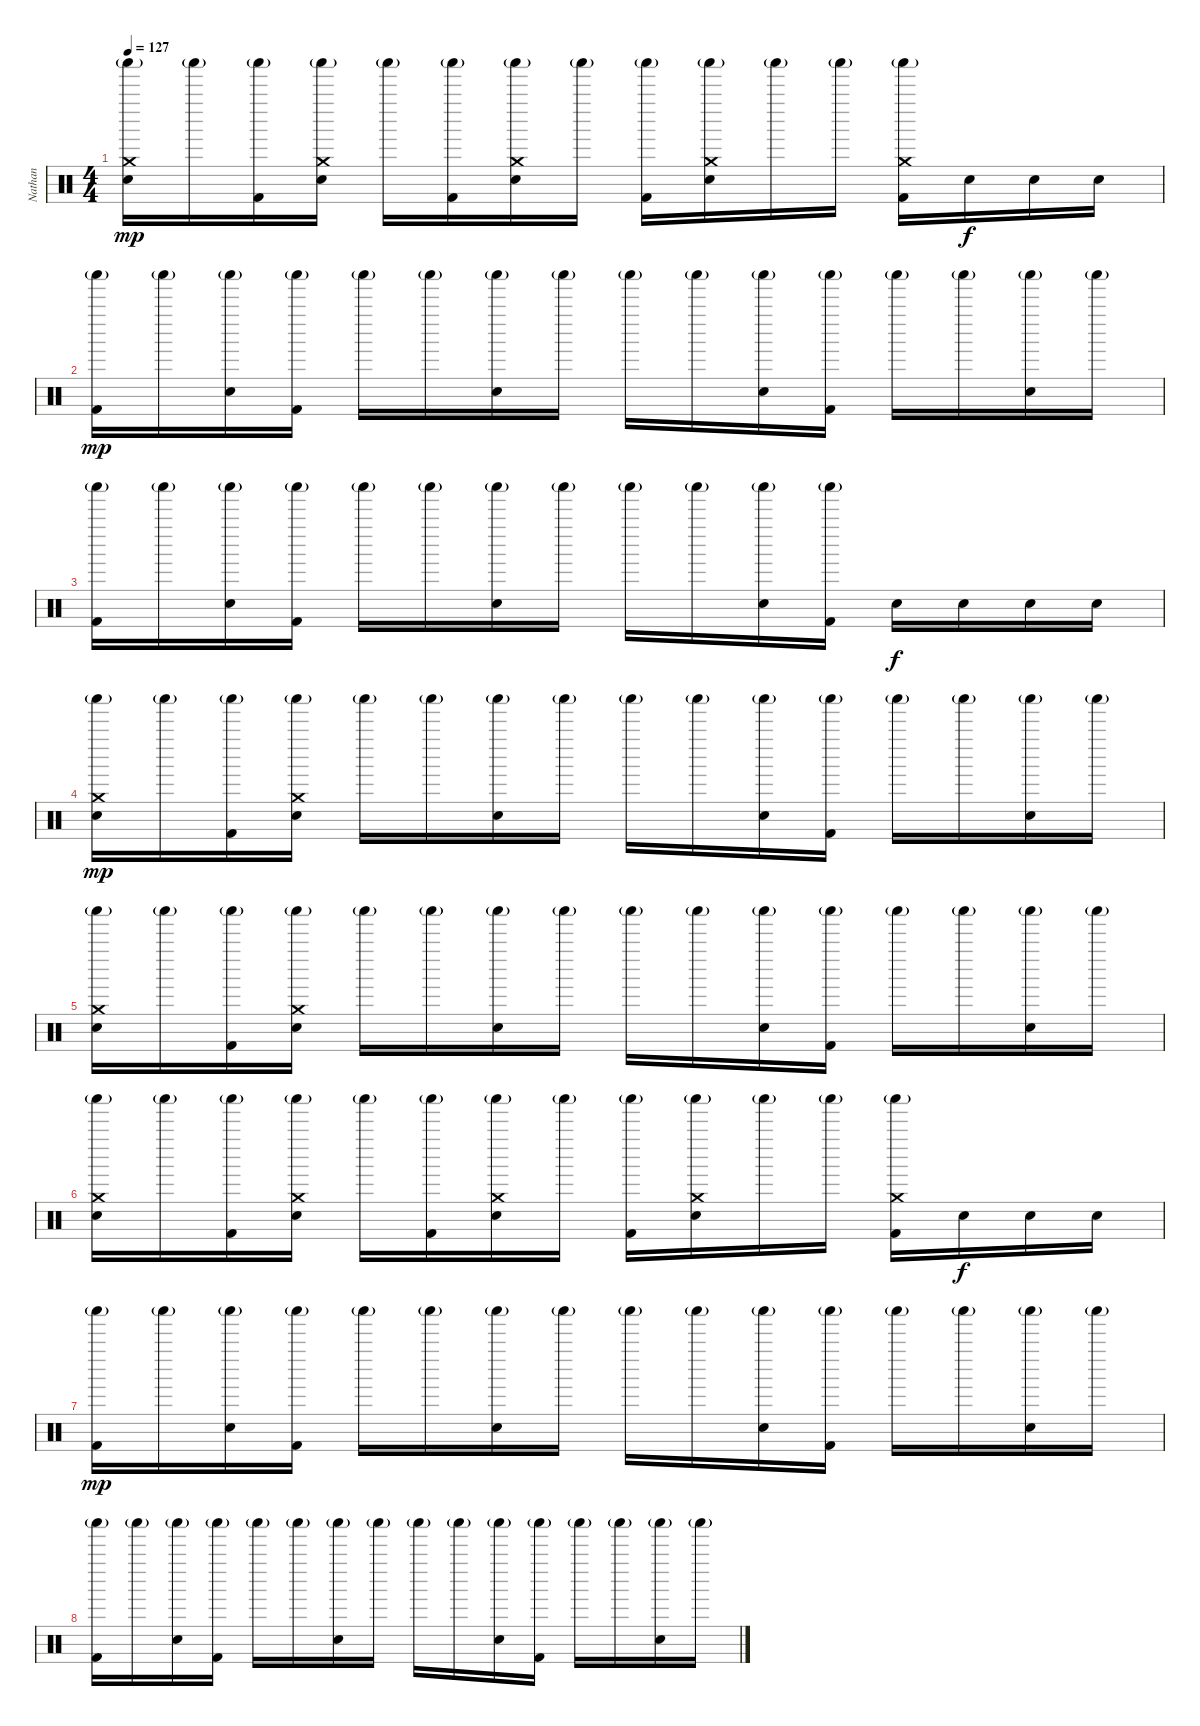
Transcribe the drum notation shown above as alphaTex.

\track ("Nathan" "Nathan") {instrument percussion}
\staff {score}
\articulation defaults
\ts (4 4)
\tempo 127
\clef neutral
\ks c
("Crash medium (hit)" "Shaker (hit)"{g} "Electric Snare (hit)").16{dy mp} "Shaker (hit)"{g}.16 ("Shaker (hit)"{g} "Kick (hit) 2").16 ("Crash medium (hit)" "Shaker (hit)"{g} "Electric Snare (hit)").16 "Shaker (hit)"{g}.16 ("Shaker (hit)"{g} "Kick (hit) 2").16 ("Crash medium (hit)" "Shaker (hit)"{g} "Electric Snare (hit)").16 "Shaker (hit)"{g}.16 ("Shaker (hit)"{g} "Kick (hit) 2").16 ("Crash medium (hit)" "Shaker (hit)"{g} "Electric Snare (hit)").16 "Shaker (hit)"{g}.16 "Shaker (hit)"{g}.16 ("Crash medium (hit)" "Shaker (hit)"{g} "Kick (hit) 2").16 "Electric Snare (hit)".16{dy f} "Electric Snare (hit)".16 "Electric Snare (hit)".16 |
("Shaker (hit)"{g} "Kick (hit) 2").16{dy mp} "Shaker (hit)"{g}.16 ("Shaker (hit)"{g} "Electric Snare (hit)").16 ("Shaker (hit)"{g} "Kick (hit) 2").16 "Shaker (hit)"{g}.16 "Shaker (hit)"{g}.16 ("Shaker (hit)"{g} "Electric Snare (hit)").16 "Shaker (hit)"{g}.16 "Shaker (hit)"{g}.16 "Shaker (hit)"{g}.16 ("Shaker (hit)"{g} "Electric Snare (hit)").16 ("Shaker (hit)"{g} "Kick (hit) 2").16 "Shaker (hit)"{g}.16 "Shaker (hit)"{g}.16 ("Shaker (hit)"{g} "Electric Snare (hit)").16 "Shaker (hit)"{g}.16 |
("Shaker (hit)"{g} "Kick (hit) 2").16 "Shaker (hit)"{g}.16 ("Shaker (hit)"{g} "Electric Snare (hit)").16 ("Shaker (hit)"{g} "Kick (hit) 2").16 "Shaker (hit)"{g}.16 "Shaker (hit)"{g}.16 ("Shaker (hit)"{g} "Electric Snare (hit)").16 "Shaker (hit)"{g}.16 "Shaker (hit)"{g}.16 "Shaker (hit)"{g}.16 ("Shaker (hit)"{g} "Electric Snare (hit)").16 ("Shaker (hit)"{g} "Kick (hit) 2").16 "Electric Snare (hit)".16{dy f} "Electric Snare (hit)".16 "Electric Snare (hit)".16 "Electric Snare (hit)".16 |
("Crash medium (hit)" "Shaker (hit)"{g} "Electric Snare (hit)").16{dy mp} "Shaker (hit)"{g}.16 ("Shaker (hit)"{g} "Kick (hit) 2").16 ("Crash medium (hit)" "Shaker (hit)"{g} "Electric Snare (hit)").16 "Shaker (hit)"{g}.16 "Shaker (hit)"{g}.16 ("Shaker (hit)"{g} "Electric Snare (hit)").16 "Shaker (hit)"{g}.16 "Shaker (hit)"{g}.16 "Shaker (hit)"{g}.16 ("Shaker (hit)"{g} "Electric Snare (hit)").16 ("Shaker (hit)"{g} "Kick (hit) 2").16 "Shaker (hit)"{g}.16 "Shaker (hit)"{g}.16 ("Shaker (hit)"{g} "Electric Snare (hit)").16 "Shaker (hit)"{g}.16 |
("Crash medium (hit)" "Shaker (hit)"{g} "Electric Snare (hit)").16 "Shaker (hit)"{g}.16 ("Shaker (hit)"{g} "Kick (hit) 2").16 ("Crash medium (hit)" "Shaker (hit)"{g} "Electric Snare (hit)").16 "Shaker (hit)"{g}.16 "Shaker (hit)"{g}.16 ("Shaker (hit)"{g} "Electric Snare (hit)").16 "Shaker (hit)"{g}.16 "Shaker (hit)"{g}.16 "Shaker (hit)"{g}.16 ("Shaker (hit)"{g} "Electric Snare (hit)").16 ("Shaker (hit)"{g} "Kick (hit) 2").16 "Shaker (hit)"{g}.16 "Shaker (hit)"{g}.16 ("Shaker (hit)"{g} "Electric Snare (hit)").16 "Shaker (hit)"{g}.16 |
("Crash medium (hit)" "Shaker (hit)"{g} "Electric Snare (hit)").16 "Shaker (hit)"{g}.16 ("Shaker (hit)"{g} "Kick (hit) 2").16 ("Crash medium (hit)" "Shaker (hit)"{g} "Electric Snare (hit)").16 "Shaker (hit)"{g}.16 ("Shaker (hit)"{g} "Kick (hit) 2").16 ("Crash medium (hit)" "Shaker (hit)"{g} "Electric Snare (hit)").16 "Shaker (hit)"{g}.16 ("Shaker (hit)"{g} "Kick (hit) 2").16 ("Crash medium (hit)" "Shaker (hit)"{g} "Electric Snare (hit)").16 "Shaker (hit)"{g}.16 "Shaker (hit)"{g}.16 ("Crash medium (hit)" "Shaker (hit)"{g} "Kick (hit) 2").16 "Electric Snare (hit)".16{dy f} "Electric Snare (hit)".16 "Electric Snare (hit)".16 |
("Shaker (hit)"{g} "Kick (hit) 2").16{dy mp} "Shaker (hit)"{g}.16 ("Shaker (hit)"{g} "Electric Snare (hit)").16 ("Shaker (hit)"{g} "Kick (hit) 2").16 "Shaker (hit)"{g}.16 "Shaker (hit)"{g}.16 ("Shaker (hit)"{g} "Electric Snare (hit)").16 "Shaker (hit)"{g}.16 "Shaker (hit)"{g}.16 "Shaker (hit)"{g}.16 ("Shaker (hit)"{g} "Electric Snare (hit)").16 ("Shaker (hit)"{g} "Kick (hit) 2").16 "Shaker (hit)"{g}.16 "Shaker (hit)"{g}.16 ("Shaker (hit)"{g} "Electric Snare (hit)").16 "Shaker (hit)"{g}.16 |
("Shaker (hit)"{g} "Kick (hit) 2").16 "Shaker (hit)"{g}.16 ("Shaker (hit)"{g} "Electric Snare (hit)").16 ("Shaker (hit)"{g} "Kick (hit) 2").16 "Shaker (hit)"{g}.16 "Shaker (hit)"{g}.16 ("Shaker (hit)"{g} "Electric Snare (hit)").16 "Shaker (hit)"{g}.16 "Shaker (hit)"{g}.16 "Shaker (hit)"{g}.16 ("Shaker (hit)"{g} "Electric Snare (hit)").16 ("Shaker (hit)"{g} "Kick (hit) 2").16 "Shaker (hit)"{g}.16 "Shaker (hit)"{g}.16 ("Shaker (hit)"{g} "Electric Snare (hit)").16 "Shaker (hit)"{g}.16
